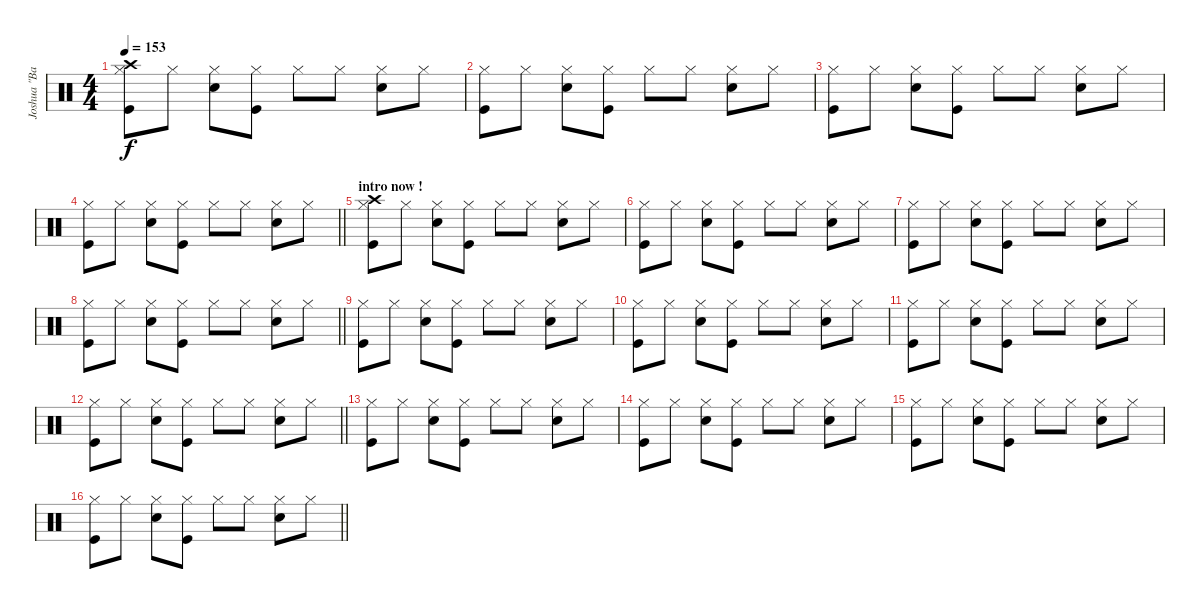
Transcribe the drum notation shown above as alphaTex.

\track ("Joshua \"Baby Duck\" Homme" "Joshua \"Ba") {instrument percussion}
\staff {score}
\articulation defaults
\ts (4 4)
\section ("" "")
\tempo 153
\clef neutral
\ks c
("Kick (hit)" "Hi-Hat (closed)" "Crash high (hit)").8{dy f} "Hi-Hat (closed)".8 ("Electric Snare (hit)" "Hi-Hat (closed)").8 ("Kick (hit)" "Hi-Hat (closed)").8 "Hi-Hat (closed)".8 "Hi-Hat (closed)".8 ("Electric Snare (hit)" "Hi-Hat (closed)").8 "Hi-Hat (closed)".8 |
("Kick (hit)" "Hi-Hat (closed)").8 "Hi-Hat (closed)".8 ("Electric Snare (hit)" "Hi-Hat (closed)").8 ("Kick (hit)" "Hi-Hat (closed)").8 "Hi-Hat (closed)".8 "Hi-Hat (closed)".8 ("Electric Snare (hit)" "Hi-Hat (closed)").8 "Hi-Hat (closed)".8 |
("Kick (hit)" "Hi-Hat (closed)").8 "Hi-Hat (closed)".8 ("Electric Snare (hit)" "Hi-Hat (closed)").8 ("Kick (hit)" "Hi-Hat (closed)").8 "Hi-Hat (closed)".8 "Hi-Hat (closed)".8 ("Electric Snare (hit)" "Hi-Hat (closed)").8 "Hi-Hat (closed)".8 |
\barLineRight lightlight
("Kick (hit)" "Hi-Hat (closed)").8 "Hi-Hat (closed)".8 ("Electric Snare (hit)" "Hi-Hat (closed)").8 ("Kick (hit)" "Hi-Hat (closed)").8 "Hi-Hat (closed)".8 "Hi-Hat (closed)".8 ("Electric Snare (hit)" "Hi-Hat (closed)").8 "Hi-Hat (closed)".8 |
\section ("" "intro now !")
("Kick (hit)" "Hi-Hat (closed)" "Crash high (hit)").8 "Hi-Hat (closed)".8 ("Electric Snare (hit)" "Hi-Hat (closed)").8 ("Kick (hit)" "Hi-Hat (closed)").8 "Hi-Hat (closed)".8 "Hi-Hat (closed)".8 ("Electric Snare (hit)" "Hi-Hat (closed)").8 "Hi-Hat (closed)".8 |
("Kick (hit)" "Hi-Hat (closed)").8 "Hi-Hat (closed)".8 ("Electric Snare (hit)" "Hi-Hat (closed)").8 ("Kick (hit)" "Hi-Hat (closed)").8 "Hi-Hat (closed)".8 "Hi-Hat (closed)".8 ("Electric Snare (hit)" "Hi-Hat (closed)").8 "Hi-Hat (closed)".8 |
("Kick (hit)" "Hi-Hat (closed)").8 "Hi-Hat (closed)".8 ("Electric Snare (hit)" "Hi-Hat (closed)").8 ("Kick (hit)" "Hi-Hat (closed)").8 "Hi-Hat (closed)".8 "Hi-Hat (closed)".8 ("Electric Snare (hit)" "Hi-Hat (closed)").8 "Hi-Hat (closed)".8 |
\barLineRight lightlight
("Kick (hit)" "Hi-Hat (closed)").8 "Hi-Hat (closed)".8 ("Electric Snare (hit)" "Hi-Hat (closed)").8 ("Kick (hit)" "Hi-Hat (closed)").8 "Hi-Hat (closed)".8 "Hi-Hat (closed)".8 ("Electric Snare (hit)" "Hi-Hat (closed)").8 "Hi-Hat (closed)".8 |
\section ("" "")
("Kick (hit)" "Hi-Hat (closed)").8 "Hi-Hat (closed)".8 ("Electric Snare (hit)" "Hi-Hat (closed)").8 ("Kick (hit)" "Hi-Hat (closed)").8 "Hi-Hat (closed)".8 "Hi-Hat (closed)".8 ("Electric Snare (hit)" "Hi-Hat (closed)").8 "Hi-Hat (closed)".8 |
("Kick (hit)" "Hi-Hat (closed)").8 "Hi-Hat (closed)".8 ("Electric Snare (hit)" "Hi-Hat (closed)").8 ("Kick (hit)" "Hi-Hat (closed)").8 "Hi-Hat (closed)".8 "Hi-Hat (closed)".8 ("Electric Snare (hit)" "Hi-Hat (closed)").8 "Hi-Hat (closed)".8 |
("Kick (hit)" "Hi-Hat (closed)").8 "Hi-Hat (closed)".8 ("Electric Snare (hit)" "Hi-Hat (closed)").8 ("Kick (hit)" "Hi-Hat (closed)").8 "Hi-Hat (closed)".8 "Hi-Hat (closed)".8 ("Electric Snare (hit)" "Hi-Hat (closed)").8 "Hi-Hat (closed)".8 |
\barLineRight lightlight
("Kick (hit)" "Hi-Hat (closed)").8 "Hi-Hat (closed)".8 ("Electric Snare (hit)" "Hi-Hat (closed)").8 ("Kick (hit)" "Hi-Hat (closed)").8 "Hi-Hat (closed)".8 "Hi-Hat (closed)".8 ("Electric Snare (hit)" "Hi-Hat (closed)").8 "Hi-Hat (closed)".8 |
\section ("" "")
("Kick (hit)" "Hi-Hat (closed)").8 "Hi-Hat (closed)".8 ("Electric Snare (hit)" "Hi-Hat (closed)").8 ("Kick (hit)" "Hi-Hat (closed)").8 "Hi-Hat (closed)".8 "Hi-Hat (closed)".8 ("Electric Snare (hit)" "Hi-Hat (closed)").8 "Hi-Hat (closed)".8 |
("Kick (hit)" "Hi-Hat (closed)").8 "Hi-Hat (closed)".8 ("Electric Snare (hit)" "Hi-Hat (closed)").8 ("Kick (hit)" "Hi-Hat (closed)").8 "Hi-Hat (closed)".8 "Hi-Hat (closed)".8 ("Electric Snare (hit)" "Hi-Hat (closed)").8 "Hi-Hat (closed)".8 |
("Kick (hit)" "Hi-Hat (closed)").8 "Hi-Hat (closed)".8 ("Electric Snare (hit)" "Hi-Hat (closed)").8 ("Kick (hit)" "Hi-Hat (closed)").8 "Hi-Hat (closed)".8 "Hi-Hat (closed)".8 ("Electric Snare (hit)" "Hi-Hat (closed)").8 "Hi-Hat (closed)".8 |
\barLineRight lightlight
("Kick (hit)" "Hi-Hat (closed)").8 "Hi-Hat (closed)".8 ("Electric Snare (hit)" "Hi-Hat (closed)").8 ("Kick (hit)" "Hi-Hat (closed)").8 "Hi-Hat (closed)".8 "Hi-Hat (closed)".8 ("Electric Snare (hit)" "Hi-Hat (closed)").8 "Hi-Hat (closed)".8
